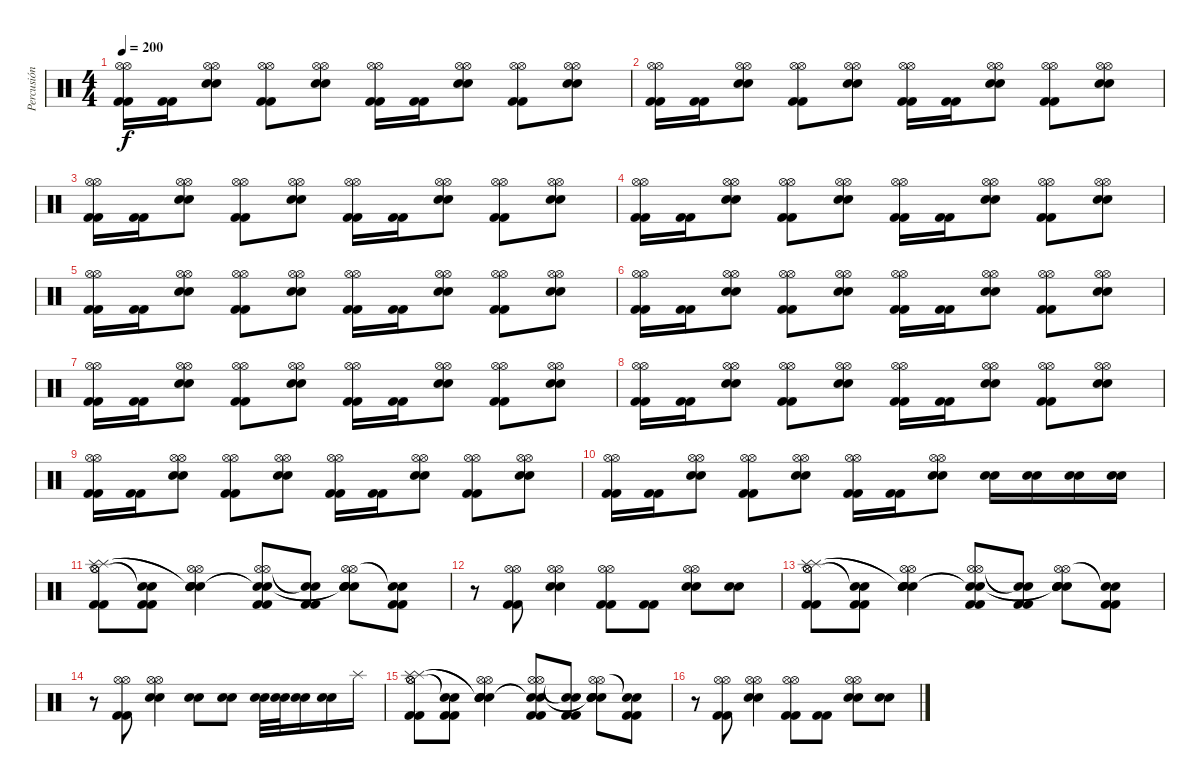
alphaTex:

\track ("Percusión" "Percusión") {instrument percussion}
\staff {score}
\articulation defaults
\ts (4 4)
\tempo 200
\clef neutral
\ks c
("Kick (hit) 2" "Kick (hit) 2" "Hi-Hat (open)" "Hi-Hat (open)").16{dy f} ("Kick (hit) 2" "Kick (hit) 2").16 ("Snare (hit) 2" "Snare (hit) 2" "Hi-Hat (open)" "Hi-Hat (open)").8 ("Kick (hit) 2" "Kick (hit) 2" "Hi-Hat (open)" "Hi-Hat (open)").8 ("Snare (hit) 2" "Snare (hit) 2" "Hi-Hat (open)" "Hi-Hat (open)").8 ("Kick (hit) 2" "Kick (hit) 2" "Hi-Hat (open)" "Hi-Hat (open)").16 ("Kick (hit) 2" "Kick (hit) 2").16 ("Snare (hit) 2" "Snare (hit) 2" "Hi-Hat (open)" "Hi-Hat (open)").8 ("Kick (hit) 2" "Kick (hit) 2" "Hi-Hat (open)" "Hi-Hat (open)").8 ("Snare (hit) 2" "Snare (hit) 2" "Hi-Hat (open)" "Hi-Hat (open)").8 |
("Kick (hit) 2" "Kick (hit) 2" "Hi-Hat (open)" "Hi-Hat (open)").16 ("Kick (hit) 2" "Kick (hit) 2").16 ("Snare (hit) 2" "Snare (hit) 2" "Hi-Hat (open)" "Hi-Hat (open)").8 ("Kick (hit) 2" "Kick (hit) 2" "Hi-Hat (open)" "Hi-Hat (open)").8 ("Snare (hit) 2" "Snare (hit) 2" "Hi-Hat (open)" "Hi-Hat (open)").8 ("Kick (hit) 2" "Kick (hit) 2" "Hi-Hat (open)" "Hi-Hat (open)").16 ("Kick (hit) 2" "Kick (hit) 2").16 ("Snare (hit) 2" "Snare (hit) 2" "Hi-Hat (open)" "Hi-Hat (open)").8 ("Kick (hit) 2" "Kick (hit) 2" "Hi-Hat (open)" "Hi-Hat (open)").8 ("Snare (hit) 2" "Snare (hit) 2" "Hi-Hat (open)" "Hi-Hat (open)").8 |
("Kick (hit) 2" "Kick (hit) 2" "Hi-Hat (open)" "Hi-Hat (open)").16 ("Kick (hit) 2" "Kick (hit) 2").16 ("Snare (hit) 2" "Snare (hit) 2" "Hi-Hat (open)" "Hi-Hat (open)").8 ("Kick (hit) 2" "Kick (hit) 2" "Hi-Hat (open)" "Hi-Hat (open)").8 ("Snare (hit) 2" "Snare (hit) 2" "Hi-Hat (open)" "Hi-Hat (open)").8 ("Kick (hit) 2" "Kick (hit) 2" "Hi-Hat (open)" "Hi-Hat (open)").16 ("Kick (hit) 2" "Kick (hit) 2").16 ("Snare (hit) 2" "Snare (hit) 2" "Hi-Hat (open)" "Hi-Hat (open)").8 ("Kick (hit) 2" "Kick (hit) 2" "Hi-Hat (open)" "Hi-Hat (open)").8 ("Snare (hit) 2" "Snare (hit) 2" "Hi-Hat (open)" "Hi-Hat (open)").8 |
("Kick (hit) 2" "Kick (hit) 2" "Hi-Hat (open)" "Hi-Hat (open)").16 ("Kick (hit) 2" "Kick (hit) 2").16 ("Snare (hit) 2" "Snare (hit) 2" "Hi-Hat (open)" "Hi-Hat (open)").8 ("Kick (hit) 2" "Kick (hit) 2" "Hi-Hat (open)" "Hi-Hat (open)").8 ("Snare (hit) 2" "Snare (hit) 2" "Hi-Hat (open)" "Hi-Hat (open)").8 ("Kick (hit) 2" "Kick (hit) 2" "Hi-Hat (open)" "Hi-Hat (open)").16 ("Kick (hit) 2" "Kick (hit) 2").16 ("Snare (hit) 2" "Snare (hit) 2" "Hi-Hat (open)" "Hi-Hat (open)").8 ("Kick (hit) 2" "Kick (hit) 2" "Hi-Hat (open)" "Hi-Hat (open)").8 ("Snare (hit) 2" "Snare (hit) 2" "Hi-Hat (open)" "Hi-Hat (open)").8 |
("Kick (hit) 2" "Kick (hit) 2" "Hi-Hat (open)" "Hi-Hat (open)").16 ("Kick (hit) 2" "Kick (hit) 2").16 ("Snare (hit) 2" "Snare (hit) 2" "Hi-Hat (open)" "Hi-Hat (open)").8 ("Kick (hit) 2" "Kick (hit) 2" "Hi-Hat (open)" "Hi-Hat (open)").8 ("Snare (hit) 2" "Snare (hit) 2" "Hi-Hat (open)" "Hi-Hat (open)").8 ("Kick (hit) 2" "Kick (hit) 2" "Hi-Hat (open)" "Hi-Hat (open)").16 ("Kick (hit) 2" "Kick (hit) 2").16 ("Snare (hit) 2" "Snare (hit) 2" "Hi-Hat (open)" "Hi-Hat (open)").8 ("Kick (hit) 2" "Kick (hit) 2" "Hi-Hat (open)" "Hi-Hat (open)").8 ("Snare (hit) 2" "Snare (hit) 2" "Hi-Hat (open)" "Hi-Hat (open)").8 |
("Kick (hit) 2" "Kick (hit) 2" "Hi-Hat (open)" "Hi-Hat (open)").16 ("Kick (hit) 2" "Kick (hit) 2").16 ("Snare (hit) 2" "Snare (hit) 2" "Hi-Hat (open)" "Hi-Hat (open)").8 ("Kick (hit) 2" "Kick (hit) 2" "Hi-Hat (open)" "Hi-Hat (open)").8 ("Snare (hit) 2" "Snare (hit) 2" "Hi-Hat (open)" "Hi-Hat (open)").8 ("Kick (hit) 2" "Kick (hit) 2" "Hi-Hat (open)" "Hi-Hat (open)").16 ("Kick (hit) 2" "Kick (hit) 2").16 ("Snare (hit) 2" "Snare (hit) 2" "Hi-Hat (open)" "Hi-Hat (open)").8 ("Kick (hit) 2" "Kick (hit) 2" "Hi-Hat (open)" "Hi-Hat (open)").8 ("Snare (hit) 2" "Snare (hit) 2" "Hi-Hat (open)" "Hi-Hat (open)").8 |
("Kick (hit) 2" "Kick (hit) 2" "Hi-Hat (open)" "Hi-Hat (open)").16 ("Kick (hit) 2" "Kick (hit) 2").16 ("Snare (hit) 2" "Snare (hit) 2" "Hi-Hat (open)" "Hi-Hat (open)").8 ("Kick (hit) 2" "Kick (hit) 2" "Hi-Hat (open)" "Hi-Hat (open)").8 ("Snare (hit) 2" "Snare (hit) 2" "Hi-Hat (open)" "Hi-Hat (open)").8 ("Kick (hit) 2" "Kick (hit) 2" "Hi-Hat (open)" "Hi-Hat (open)").16 ("Kick (hit) 2" "Kick (hit) 2").16 ("Snare (hit) 2" "Snare (hit) 2" "Hi-Hat (open)" "Hi-Hat (open)").8 ("Kick (hit) 2" "Kick (hit) 2" "Hi-Hat (open)" "Hi-Hat (open)").8 ("Snare (hit) 2" "Snare (hit) 2" "Hi-Hat (open)" "Hi-Hat (open)").8 |
("Kick (hit) 2" "Kick (hit) 2" "Hi-Hat (open)" "Hi-Hat (open)").16 ("Kick (hit) 2" "Kick (hit) 2").16 ("Snare (hit) 2" "Snare (hit) 2" "Hi-Hat (open)" "Hi-Hat (open)").8 ("Kick (hit) 2" "Kick (hit) 2" "Hi-Hat (open)" "Hi-Hat (open)").8 ("Snare (hit) 2" "Snare (hit) 2" "Hi-Hat (open)" "Hi-Hat (open)").8 ("Kick (hit) 2" "Kick (hit) 2" "Hi-Hat (open)" "Hi-Hat (open)").16 ("Kick (hit) 2" "Kick (hit) 2").16 ("Snare (hit) 2" "Snare (hit) 2" "Hi-Hat (open)" "Hi-Hat (open)").8 ("Kick (hit) 2" "Kick (hit) 2" "Hi-Hat (open)" "Hi-Hat (open)").8 ("Snare (hit) 2" "Snare (hit) 2" "Hi-Hat (open)" "Hi-Hat (open)").8 |
("Kick (hit) 2" "Kick (hit) 2" "Hi-Hat (open)" "Hi-Hat (open)").16 ("Kick (hit) 2" "Kick (hit) 2").16 ("Snare (hit) 2" "Snare (hit) 2" "Hi-Hat (open)" "Hi-Hat (open)").8 ("Kick (hit) 2" "Kick (hit) 2" "Hi-Hat (open)" "Hi-Hat (open)").8 ("Snare (hit) 2" "Snare (hit) 2" "Hi-Hat (open)" "Hi-Hat (open)").8 ("Kick (hit) 2" "Kick (hit) 2" "Hi-Hat (open)" "Hi-Hat (open)").16 ("Kick (hit) 2" "Kick (hit) 2").16 ("Snare (hit) 2" "Snare (hit) 2" "Hi-Hat (open)" "Hi-Hat (open)").8 ("Kick (hit) 2" "Kick (hit) 2" "Hi-Hat (open)" "Hi-Hat (open)").8 ("Snare (hit) 2" "Snare (hit) 2" "Hi-Hat (open)" "Hi-Hat (open)").8 |
("Kick (hit) 2" "Kick (hit) 2" "Hi-Hat (open)" "Hi-Hat (open)").16 ("Kick (hit) 2" "Kick (hit) 2").16 ("Snare (hit) 2" "Snare (hit) 2" "Hi-Hat (open)" "Hi-Hat (open)").8 ("Kick (hit) 2" "Kick (hit) 2" "Hi-Hat (open)" "Hi-Hat (open)").8 ("Snare (hit) 2" "Snare (hit) 2" "Hi-Hat (open)" "Hi-Hat (open)").8 ("Kick (hit) 2" "Kick (hit) 2" "Hi-Hat (open)" "Hi-Hat (open)").16 ("Kick (hit) 2" "Kick (hit) 2").16 ("Snare (hit) 2" "Snare (hit) 2" "Hi-Hat (open)" "Hi-Hat (open)").8 ("Snare (hit) 2" "Snare (hit) 2").16 ("Snare (hit) 2" "Snare (hit) 2").16 ("Snare (hit) 2" "Snare (hit) 2").16 ("Snare (hit) 2" "Snare (hit) 2").16 |
("Kick (hit) 2" "Kick (hit) 2" "Hi-Hat (open)" "Hi-Hat (open)" "Splash (hit)" "Splash (hit)").8 ("Kick (hit) 2" "Kick (hit) 2" "Snare (hit)"{t} "Snare (hit)"{t}).8 ("Snare (hit) 2" "Snare (hit) 2" "Hi-Hat (open)" "Hi-Hat (open)" "Snare (hit)"{t} "Snare (hit)"{t}).4 ("Kick (hit) 2" "Kick (hit) 2" "Hi-Hat (open)" "Hi-Hat (open)" "Snare (hit)"{t} "Snare (hit)"{t}).8 ("Kick (hit) 2" "Kick (hit) 2" "Snare (hit)"{t} "Snare (hit)"{t}).8 ("Snare (hit) 2" "Snare (hit) 2" "Hi-Hat (open)" "Hi-Hat (open)" "Snare (hit)"{t} "Snare (hit)"{t}).8 ("Kick (hit) 2" "Kick (hit) 2" "Snare (hit)"{t} "Snare (hit)"{t}).8 |
r.8 ("Kick (hit) 2" "Kick (hit) 2" "Hi-Hat (open)" "Hi-Hat (open)").8 ("Snare (hit) 2" "Snare (hit) 2" "Hi-Hat (open)" "Hi-Hat (open)").4 ("Kick (hit) 2" "Kick (hit) 2" "Hi-Hat (open)" "Hi-Hat (open)").8 ("Kick (hit) 2" "Kick (hit) 2").8 ("Snare (hit) 2" "Snare (hit) 2" "Hi-Hat (open)" "Hi-Hat (open)").8 ("Snare (hit) 2" "Snare (hit) 2").8 |
("Kick (hit) 2" "Kick (hit) 2" "Hi-Hat (open)" "Hi-Hat (open)" "Splash (hit)" "Splash (hit)").8 ("Kick (hit) 2" "Kick (hit) 2" "Snare (hit)"{t} "Snare (hit)"{t}).8 ("Snare (hit) 2" "Snare (hit) 2" "Hi-Hat (open)" "Hi-Hat (open)" "Snare (hit)"{t} "Snare (hit)"{t}).4 ("Kick (hit) 2" "Kick (hit) 2" "Hi-Hat (open)" "Hi-Hat (open)" "Snare (hit)"{t} "Snare (hit)"{t}).8 ("Kick (hit) 2" "Kick (hit) 2" "Snare (hit)"{t} "Snare (hit)"{t}).8 ("Snare (hit) 2" "Snare (hit) 2" "Hi-Hat (open)" "Hi-Hat (open)" "Snare (hit)"{t} "Snare (hit)"{t}).8 ("Kick (hit) 2" "Kick (hit) 2" "Snare (hit)"{t} "Snare (hit)"{t}).8 |
r.8 ("Kick (hit) 2" "Kick (hit) 2" "Hi-Hat (open)" "Hi-Hat (open)").8 ("Snare (hit) 2" "Snare (hit) 2" "Hi-Hat (open)" "Hi-Hat (open)").4 ("Snare (hit) 2" "Snare (hit) 2").8 ("Snare (hit) 2" "Snare (hit) 2").8 ("Snare (hit) 2" "Snare (hit) 2").32 ("Snare (hit) 2" "Snare (hit) 2").32 ("Snare (hit) 2" "Snare (hit) 2").16 ("Snare (hit) 2" "Snare (hit) 2").16 "Splash (hit)".16 |
("Kick (hit) 2" "Kick (hit) 2" "Hi-Hat (open)" "Hi-Hat (open)" "Splash (hit)" "Splash (hit)").8 ("Kick (hit) 2" "Kick (hit) 2" "Snare (hit)"{t} "Snare (hit)"{t}).8 ("Snare (hit) 2" "Snare (hit) 2" "Hi-Hat (open)" "Hi-Hat (open)" "Snare (hit)"{t} "Snare (hit)"{t}).4 ("Kick (hit) 2" "Kick (hit) 2" "Hi-Hat (open)" "Hi-Hat (open)" "Snare (hit)"{t} "Snare (hit)"{t}).8 ("Kick (hit) 2" "Kick (hit) 2" "Snare (hit)"{t} "Snare (hit)"{t}).8 ("Snare (hit) 2" "Snare (hit) 2" "Hi-Hat (open)" "Hi-Hat (open)" "Snare (hit)"{t} "Snare (hit)"{t}).8 ("Kick (hit) 2" "Kick (hit) 2" "Snare (hit)"{t} "Snare (hit)"{t}).8 |
r.8 ("Kick (hit) 2" "Kick (hit) 2" "Hi-Hat (open)" "Hi-Hat (open)").8 ("Snare (hit) 2" "Snare (hit) 2" "Hi-Hat (open)" "Hi-Hat (open)").4 ("Kick (hit) 2" "Kick (hit) 2" "Hi-Hat (open)" "Hi-Hat (open)").8 ("Kick (hit) 2" "Kick (hit) 2").8 ("Snare (hit) 2" "Snare (hit) 2" "Hi-Hat (open)" "Hi-Hat (open)").8 ("Snare (hit) 2" "Snare (hit) 2").8
